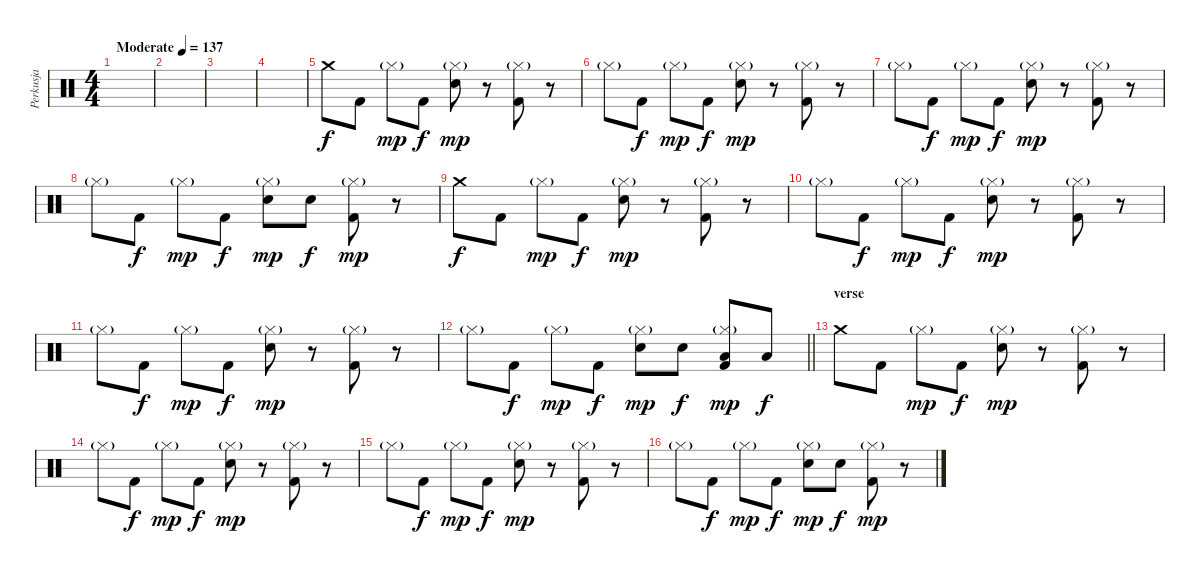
\track ("Perkusja" "Perkusja") {instrument percussion}
\staff {score}
\articulation defaults
\ts (4 4)
\tempo (137 "Moderate")
\clef neutral
\ks c
|
|
|
|
"Crash medium (hit)".8 "Kick (hit) 2".8 "Hi-Hat (closed)"{g}.8{dy mp} "Kick (hit) 2".8{dy f} ("Hi-Hat (closed)"{g} "Snare (hit) 2").8{dy mp} r.8 ("Hi-Hat (closed)"{g} "Kick (hit) 2").8 r.8 |
"Hi-Hat (closed)"{g}.8 "Kick (hit) 2".8{dy f} "Hi-Hat (closed)"{g}.8{dy mp} "Kick (hit) 2".8{dy f} ("Hi-Hat (closed)"{g} "Snare (hit) 2").8{dy mp} r.8 ("Hi-Hat (closed)"{g} "Kick (hit) 2").8 r.8 |
"Hi-Hat (closed)"{g}.8 "Kick (hit) 2".8{dy f} "Hi-Hat (closed)"{g}.8{dy mp} "Kick (hit) 2".8{dy f} ("Hi-Hat (closed)"{g} "Snare (hit) 2").8{dy mp} r.8 ("Hi-Hat (closed)"{g} "Kick (hit) 2").8 r.8 |
"Hi-Hat (closed)"{g}.8 "Kick (hit) 2".8{dy f} "Hi-Hat (closed)"{g}.8{dy mp} "Kick (hit) 2".8{dy f} ("Hi-Hat (closed)"{g} "Snare (hit) 2").8{dy mp} "Snare (hit) 2".8{dy f} ("Hi-Hat (closed)"{g} "Kick (hit) 2").8{dy mp} r.8 |
"Crash medium (hit)".8{dy f} "Kick (hit) 2".8 "Hi-Hat (closed)"{g}.8{dy mp} "Kick (hit) 2".8{dy f} ("Hi-Hat (closed)"{g} "Snare (hit) 2").8{dy mp} r.8 ("Hi-Hat (closed)"{g} "Kick (hit) 2").8 r.8 |
"Hi-Hat (closed)"{g}.8 "Kick (hit) 2".8{dy f} "Hi-Hat (closed)"{g}.8{dy mp} "Kick (hit) 2".8{dy f} ("Hi-Hat (closed)"{g} "Snare (hit) 2").8{dy mp} r.8 ("Hi-Hat (closed)"{g} "Kick (hit) 2").8 r.8 |
"Hi-Hat (closed)"{g}.8 "Kick (hit) 2".8{dy f} "Hi-Hat (closed)"{g}.8{dy mp} "Kick (hit) 2".8{dy f} ("Hi-Hat (closed)"{g} "Snare (hit) 2").8{dy mp} r.8 ("Hi-Hat (closed)"{g} "Kick (hit) 2").8 r.8 |
\barLineRight lightlight "Hi-Hat (closed)"{g}.8 "Kick (hit) 2".8{dy f} "Hi-Hat (closed)"{g}.8{dy mp} "Kick (hit) 2".8{dy f}
("Hi-Hat (closed)"{g} "Snare (hit) 2").8{dy mp} "Snare (hit) 2".8{dy f} ("Hi-Hat (closed)"{g} "Low Tom (hit)" "Kick (hit) 2").8{dy mp} "Low Tom (hit)".8{dy f} |
\section ("" "verse")
"Crash medium (hit)".8 "Kick (hit) 2".8 "Hi-Hat (closed)"{g}.8{dy mp} "Kick (hit) 2".8{dy f} ("Hi-Hat (closed)"{g} "Snare (hit) 2").8{dy mp} r.8 ("Hi-Hat (closed)"{g} "Kick (hit) 2").8 r.8 |
"Hi-Hat (closed)"{g}.8 "Kick (hit) 2".8{dy f} "Hi-Hat (closed)"{g}.8{dy mp} "Kick (hit) 2".8{dy f} ("Hi-Hat (closed)"{g} "Snare (hit) 2").8{dy mp} r.8 ("Hi-Hat (closed)"{g} "Kick (hit) 2").8 r.8 |
"Hi-Hat (closed)"{g}.8 "Kick (hit) 2".8{dy f} "Hi-Hat (closed)"{g}.8{dy mp} "Kick (hit) 2".8{dy f} ("Hi-Hat (closed)"{g} "Snare (hit) 2").8{dy mp} r.8 ("Hi-Hat (closed)"{g} "Kick (hit) 2").8 r.8 |
"Hi-Hat (closed)"{g}.8 "Kick (hit) 2".8{dy f} "Hi-Hat (closed)"{g}.8{dy mp} "Kick (hit) 2".8{dy f} ("Hi-Hat (closed)"{g} "Snare (hit) 2").8{dy mp} "Snare (hit) 2".8{dy f} ("Hi-Hat (closed)"{g} "Kick (hit) 2").8{dy mp} r.8
